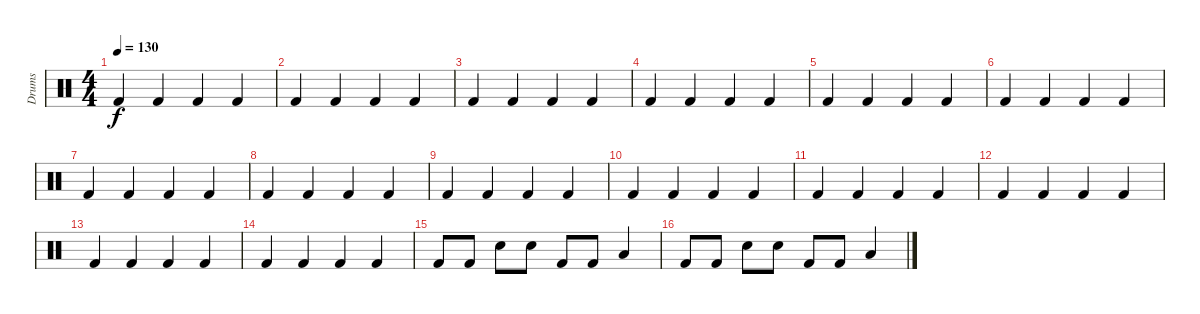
\track ("Drums" "Drums") {instrument percussion}
\staff {score}
\articulation defaults
\ts (4 4)
\tempo 130
\clef neutral
\ks c "Kick (hit) 2".4{dy f} "Kick (hit) 2".4 "Kick (hit) 2".4 "Kick (hit) 2".4
|
"Kick (hit) 2".4 "Kick (hit) 2".4 "Kick (hit) 2".4 "Kick (hit) 2".4 |
"Kick (hit) 2".4 "Kick (hit) 2".4 "Kick (hit) 2".4 "Kick (hit) 2".4 |
"Kick (hit) 2".4 "Kick (hit) 2".4 "Kick (hit) 2".4 "Kick (hit) 2".4 |
"Kick (hit) 2".4 "Kick (hit) 2".4 "Kick (hit) 2".4 "Kick (hit) 2".4 |
"Kick (hit) 2".4 "Kick (hit) 2".4 "Kick (hit) 2".4 "Kick (hit) 2".4 |
"Kick (hit) 2".4 "Kick (hit) 2".4 "Kick (hit) 2".4 "Kick (hit) 2".4 |
"Kick (hit) 2".4 "Kick (hit) 2".4 "Kick (hit) 2".4 "Kick (hit) 2".4 |
"Kick (hit) 2".4 "Kick (hit) 2".4 "Kick (hit) 2".4 "Kick (hit) 2".4 |
"Kick (hit) 2".4 "Kick (hit) 2".4 "Kick (hit) 2".4 "Kick (hit) 2".4 |
"Kick (hit) 2".4 "Kick (hit) 2".4 "Kick (hit) 2".4 "Kick (hit) 2".4 |
"Kick (hit) 2".4 "Kick (hit) 2".4 "Kick (hit) 2".4 "Kick (hit) 2".4 |
"Kick (hit) 2".4 "Kick (hit) 2".4 "Kick (hit) 2".4 "Kick (hit) 2".4 |
"Kick (hit) 2".4 "Kick (hit) 2".4 "Kick (hit) 2".4 "Kick (hit) 2".4 |
"Kick (hit) 2".8 "Kick (hit) 2".8 "Electric Snare (hit)".8 "Electric Snare (hit)".8 "Kick (hit) 2".8 "Kick (hit) 2".8 "Low Floor Tom (hit)".4 |
"Kick (hit) 2".8 "Kick (hit) 2".8 "Electric Snare (hit)".8 "Electric Snare (hit)".8 "Kick (hit) 2".8 "Kick (hit) 2".8 "Low Floor Tom (hit)".4
